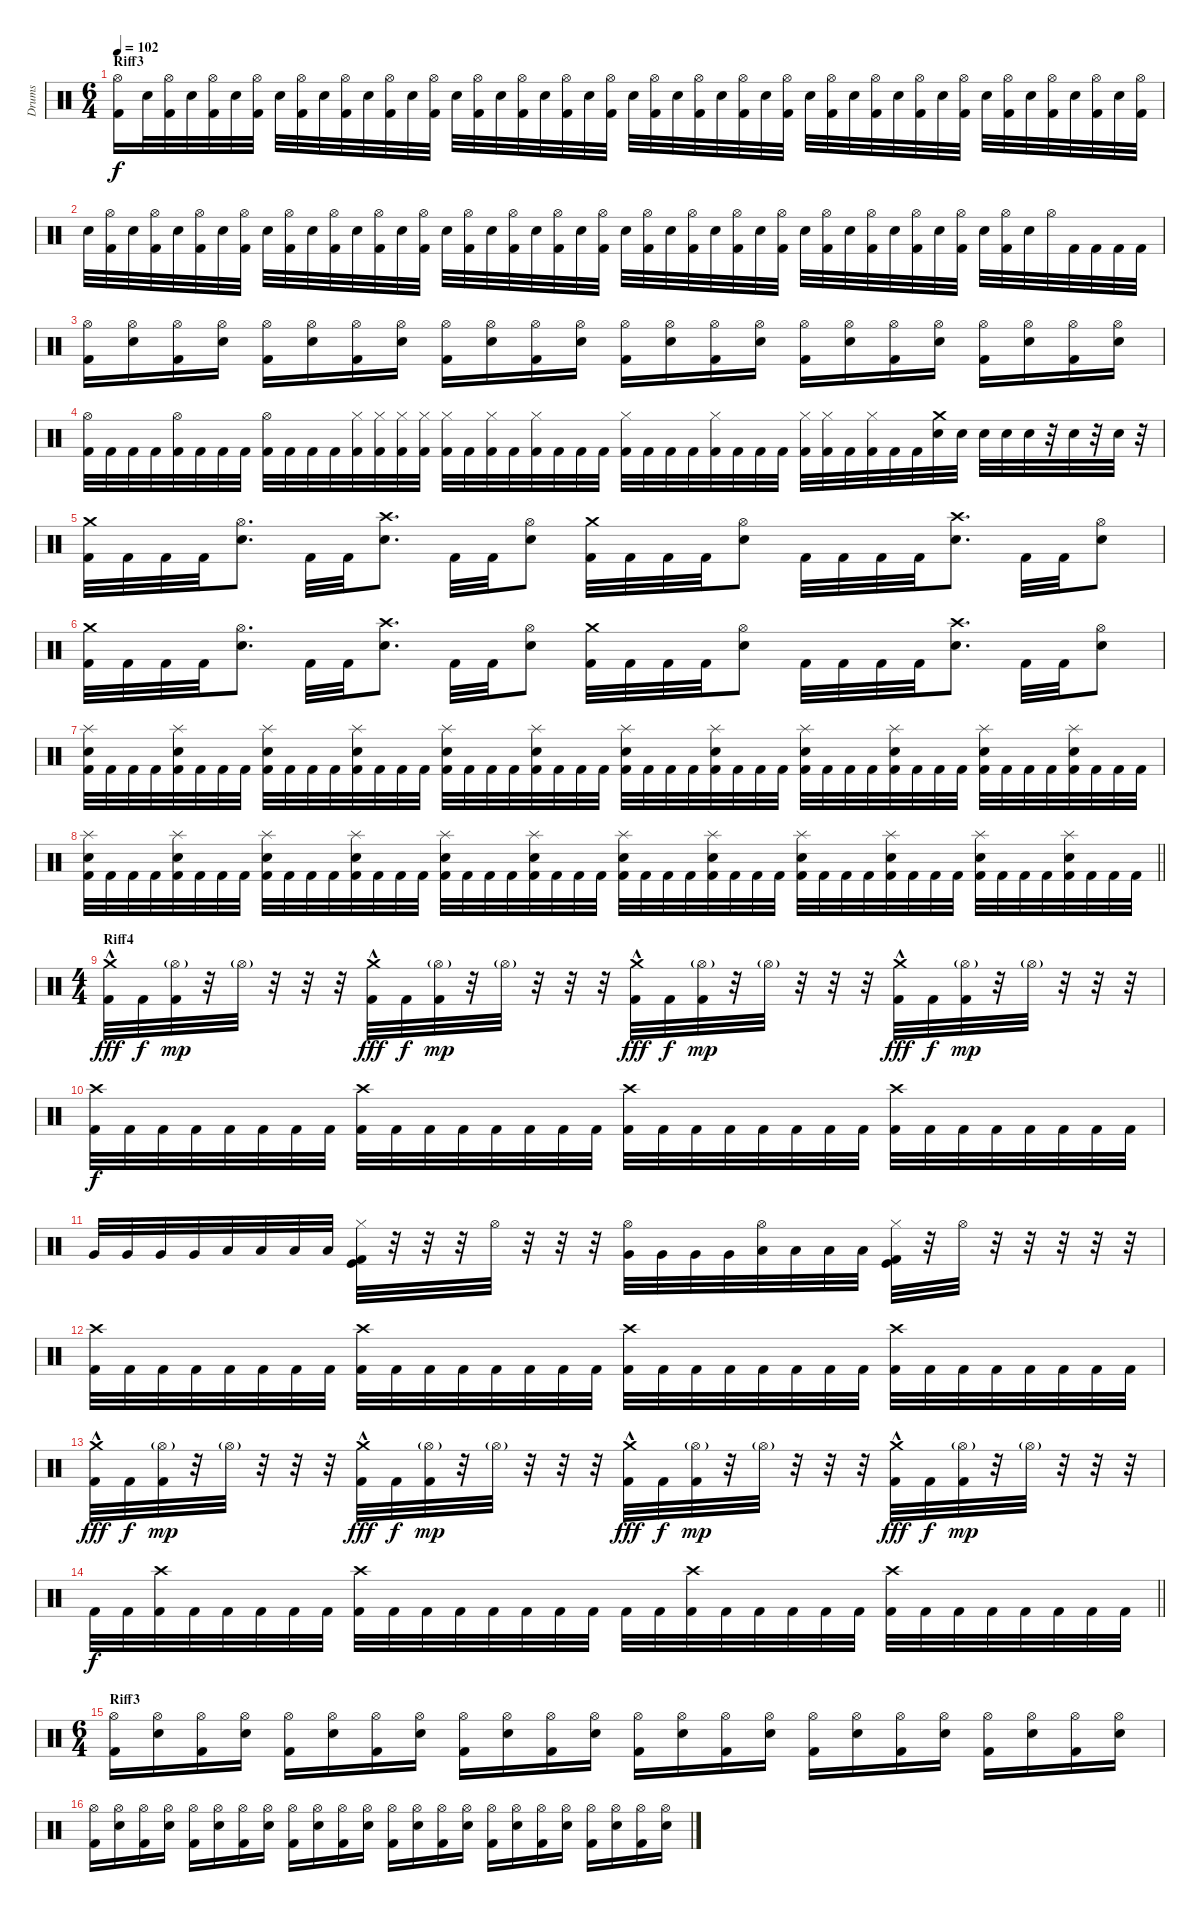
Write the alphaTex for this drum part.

\track ("Drums" "Drums") {instrument percussion}
\staff {score}
\articulation defaults
\ts (6 4)
\section ("" "Riff3")
\tempo 102
\clef neutral
\ks c
("Hi-Hat (open)" "Kick (hit) 2").16{dy f} "Electric Snare (hit)".32 ("Hi-Hat (open)" "Kick (hit) 2").32 "Electric Snare (hit)".32 ("Hi-Hat (open)" "Kick (hit) 2").32 "Electric Snare (hit)".32 ("Hi-Hat (open)" "Kick (hit) 2").32 "Electric Snare (hit)".32 ("Hi-Hat (open)" "Kick (hit) 2").32 "Electric Snare (hit)".32 ("Hi-Hat (open)" "Kick (hit) 2").32 "Electric Snare (hit)".32 ("Hi-Hat (open)" "Kick (hit) 2").32 "Electric Snare (hit)".32 ("Hi-Hat (open)" "Kick (hit) 2").32 "Electric Snare (hit)".32 ("Hi-Hat (open)" "Kick (hit) 2").32 "Electric Snare (hit)".32 ("Hi-Hat (open)" "Kick (hit) 2").32 "Electric Snare (hit)".32 ("Hi-Hat (open)" "Kick (hit) 2").32 "Electric Snare (hit)".32 ("Hi-Hat (open)" "Kick (hit) 2").32 "Electric Snare (hit)".32 ("Hi-Hat (open)" "Kick (hit) 2").32 "Electric Snare (hit)".32 ("Hi-Hat (open)" "Kick (hit) 2").32 "Electric Snare (hit)".32 ("Hi-Hat (open)" "Kick (hit) 2").32 "Electric Snare (hit)".32 ("Hi-Hat (open)" "Kick (hit) 2").32 "Electric Snare (hit)".32 ("Hi-Hat (open)" "Kick (hit) 2").32 "Electric Snare (hit)".32 ("Hi-Hat (open)" "Kick (hit) 2").32 "Electric Snare (hit)".32 ("Hi-Hat (open)" "Kick (hit) 2").32 "Electric Snare (hit)".32 ("Hi-Hat (open)" "Kick (hit) 2").32 "Electric Snare (hit)".32 ("Hi-Hat (open)" "Kick (hit) 2").32 "Electric Snare (hit)".32 ("Hi-Hat (open)" "Kick (hit) 2").32 "Electric Snare (hit)".32 ("Hi-Hat (open)" "Kick (hit) 2").32 "Electric Snare (hit)".32 ("Hi-Hat (open)" "Kick (hit) 2").32 |
"Electric Snare (hit)".32 ("Hi-Hat (open)" "Kick (hit) 2").32 "Electric Snare (hit)".32 ("Hi-Hat (open)" "Kick (hit) 2").32 "Electric Snare (hit)".32 ("Hi-Hat (open)" "Kick (hit) 2").32 "Electric Snare (hit)".32 ("Hi-Hat (open)" "Kick (hit) 2").32 "Electric Snare (hit)".32 ("Hi-Hat (open)" "Kick (hit) 2").32 "Electric Snare (hit)".32 ("Hi-Hat (open)" "Kick (hit) 2").32 "Electric Snare (hit)".32 ("Hi-Hat (open)" "Kick (hit) 2").32 "Electric Snare (hit)".32 ("Hi-Hat (open)" "Kick (hit) 2").32 "Electric Snare (hit)".32 ("Hi-Hat (open)" "Kick (hit) 2").32 "Electric Snare (hit)".32 ("Hi-Hat (open)" "Kick (hit) 2").32 "Electric Snare (hit)".32 ("Hi-Hat (open)" "Kick (hit) 2").32 "Electric Snare (hit)".32 ("Hi-Hat (open)" "Kick (hit) 2").32 "Electric Snare (hit)".32 ("Hi-Hat (open)" "Kick (hit) 2").32 "Electric Snare (hit)".32 ("Hi-Hat (open)" "Kick (hit) 2").32 "Electric Snare (hit)".32 ("Hi-Hat (open)" "Kick (hit) 2").32 "Electric Snare (hit)".32 ("Hi-Hat (open)" "Kick (hit) 2").32 "Electric Snare (hit)".32 ("Hi-Hat (open)" "Kick (hit) 2").32 "Electric Snare (hit)".32 ("Hi-Hat (open)" "Kick (hit) 2").32 "Electric Snare (hit)".32 ("Hi-Hat (open)" "Kick (hit) 2").32 "Electric Snare (hit)".32 ("Hi-Hat (open)" "Kick (hit) 2").32 "Electric Snare (hit)".32 ("Hi-Hat (open)" "Kick (hit) 2").32 "Electric Snare (hit)".32 "Hi-Hat (open)".32 "Kick (hit) 2".32 "Kick (hit) 2".32 "Kick (hit) 2".32 "Kick (hit) 2".32 |
("Hi-Hat (open)" "Kick (hit) 2").16 ("Hi-Hat (open)" "Electric Snare (hit)").16 ("Hi-Hat (open)" "Kick (hit) 2").16 ("Hi-Hat (open)" "Electric Snare (hit)").16 ("Hi-Hat (open)" "Kick (hit) 2").16 ("Hi-Hat (open)" "Electric Snare (hit)").16 ("Hi-Hat (open)" "Kick (hit) 2").16 ("Hi-Hat (open)" "Electric Snare (hit)").16 ("Hi-Hat (open)" "Kick (hit) 2").16 ("Hi-Hat (open)" "Electric Snare (hit)").16 ("Hi-Hat (open)" "Kick (hit) 2").16 ("Hi-Hat (open)" "Electric Snare (hit)").16 ("Hi-Hat (open)" "Kick (hit) 2").16 ("Hi-Hat (open)" "Electric Snare (hit)").16 ("Hi-Hat (open)" "Kick (hit) 2").16 ("Hi-Hat (open)" "Electric Snare (hit)").16 ("Hi-Hat (open)" "Kick (hit) 2").16 ("Hi-Hat (open)" "Electric Snare (hit)").16 ("Hi-Hat (open)" "Kick (hit) 2").16 ("Hi-Hat (open)" "Electric Snare (hit)").16 ("Hi-Hat (open)" "Kick (hit) 2").16 ("Hi-Hat (open)" "Electric Snare (hit)").16 ("Hi-Hat (open)" "Kick (hit) 2").16 ("Hi-Hat (open)" "Electric Snare (hit)").16 |
("Hi-Hat (open)" "Kick (hit) 2").32 "Kick (hit) 2".32 "Kick (hit) 2".32 "Kick (hit) 2".32 ("Hi-Hat (open)" "Kick (hit) 2").32 "Kick (hit) 2".32 "Kick (hit) 2".32 "Kick (hit) 2".32 ("Hi-Hat (open)" "Kick (hit) 2").32 "Kick (hit) 2".32 "Kick (hit) 2".32 "Kick (hit) 2".32 ("Hi-Hat (closed)" "Kick (hit) 2").32 ("Hi-Hat (closed)" "Kick (hit) 2").32 ("Hi-Hat (closed)" "Kick (hit) 2").32 ("Hi-Hat (closed)" "Kick (hit) 2").32 ("Hi-Hat (closed)" "Kick (hit) 2").32 "Kick (hit) 2".32 ("Hi-Hat (closed)" "Kick (hit) 2").32 "Kick (hit) 2".32 ("Hi-Hat (closed)" "Kick (hit) 2").32 "Kick (hit) 2".32 "Kick (hit) 2".32 "Kick (hit) 2".32 ("Hi-Hat (closed)" "Kick (hit) 2").32 "Kick (hit) 2".32 "Kick (hit) 2".32 "Kick (hit) 2".32 ("Hi-Hat (closed)" "Kick (hit) 2").32 "Kick (hit) 2".32 "Kick (hit) 2".32 "Kick (hit) 2".32 ("Hi-Hat (closed)" "Kick (hit) 2").32 ("Hi-Hat (closed)" "Kick (hit) 2").32 "Kick (hit) 2".32 ("Hi-Hat (closed)" "Kick (hit) 2").32 "Kick (hit) 2".32 "Kick (hit) 2".32 ("Crash medium (hit)" "Electric Snare (hit)").32 "Electric Snare (hit)".32 "Electric Snare (hit)".32 "Electric Snare (hit)".32 "Electric Snare (hit)".32 r.32 "Electric Snare (hit)".32 r.32 "Electric Snare (hit)".32 r.32 |
("Crash medium (hit)" "Kick (hit) 2").32 "Kick (hit) 2".32 "Kick (hit) 2".32 "Kick (hit) 2".32 ("Hi-Hat (open)" "Electric Snare (hit)").8{d} "Kick (hit) 2".32 "Kick (hit) 2".32 ("Crash high (hit)" "Electric Snare (hit)").8{d} "Kick (hit) 2".32 "Kick (hit) 2".32 ("Hi-Hat (open)" "Electric Snare (hit)").8 ("Crash medium (hit)" "Kick (hit) 2").32 "Kick (hit) 2".32 "Kick (hit) 2".32 "Kick (hit) 2".32 ("Hi-Hat (open)" "Electric Snare (hit)").8 "Kick (hit) 2".32 "Kick (hit) 2".32 "Kick (hit) 2".32 "Kick (hit) 2".32 ("Crash high (hit)" "Electric Snare (hit)").8{d} "Kick (hit) 2".32 "Kick (hit) 2".32 ("Hi-Hat (open)" "Electric Snare (hit)").8 |
("Crash medium (hit)" "Kick (hit) 2").32 "Kick (hit) 2".32 "Kick (hit) 2".32 "Kick (hit) 2".32 ("Hi-Hat (open)" "Electric Snare (hit)").8{d} "Kick (hit) 2".32 "Kick (hit) 2".32 ("Crash high (hit)" "Electric Snare (hit)").8{d} "Kick (hit) 2".32 "Kick (hit) 2".32 ("Hi-Hat (open)" "Electric Snare (hit)").8 ("Crash medium (hit)" "Kick (hit) 2").32 "Kick (hit) 2".32 "Kick (hit) 2".32 "Kick (hit) 2".32 ("Hi-Hat (open)" "Electric Snare (hit)").8 "Kick (hit) 2".32 "Kick (hit) 2".32 "Kick (hit) 2".32 "Kick (hit) 2".32 ("Crash high (hit)" "Electric Snare (hit)").8{d} "Kick (hit) 2".32 "Kick (hit) 2".32 ("Hi-Hat (open)" "Electric Snare (hit)").8 |
("Splash (hit)" "Electric Snare (hit)" "Kick (hit) 2").32 "Kick (hit) 2".32 "Kick (hit) 2".32 "Kick (hit) 2".32 ("Splash (hit)" "Electric Snare (hit)" "Kick (hit) 2").32 "Kick (hit) 2".32 "Kick (hit) 2".32 "Kick (hit) 2".32 ("Splash (hit)" "Electric Snare (hit)" "Kick (hit) 2").32 "Kick (hit) 2".32 "Kick (hit) 2".32 "Kick (hit) 2".32 ("Splash (hit)" "Electric Snare (hit)" "Kick (hit) 2").32 "Kick (hit) 2".32 "Kick (hit) 2".32 "Kick (hit) 2".32 ("Splash (hit)" "Electric Snare (hit)" "Kick (hit) 2").32 "Kick (hit) 2".32 "Kick (hit) 2".32 "Kick (hit) 2".32 ("Splash (hit)" "Electric Snare (hit)" "Kick (hit) 2").32 "Kick (hit) 2".32 "Kick (hit) 2".32 "Kick (hit) 2".32 ("Splash (hit)" "Electric Snare (hit)" "Kick (hit) 2").32 "Kick (hit) 2".32 "Kick (hit) 2".32 "Kick (hit) 2".32 ("Splash (hit)" "Electric Snare (hit)" "Kick (hit) 2").32 "Kick (hit) 2".32 "Kick (hit) 2".32 "Kick (hit) 2".32 ("Splash (hit)" "Electric Snare (hit)" "Kick (hit) 2").32 "Kick (hit) 2".32 "Kick (hit) 2".32 "Kick (hit) 2".32 ("Splash (hit)" "Electric Snare (hit)" "Kick (hit) 2").32 "Kick (hit) 2".32 "Kick (hit) 2".32 "Kick (hit) 2".32 ("Splash (hit)" "Electric Snare (hit)" "Kick (hit) 2").32 "Kick (hit) 2".32 "Kick (hit) 2".32 "Kick (hit) 2".32 ("Splash (hit)" "Electric Snare (hit)" "Kick (hit) 2").32 "Kick (hit) 2".32 "Kick (hit) 2".32 "Kick (hit) 2".32 |
\barLineRight lightlight
("Splash (hit)" "Electric Snare (hit)" "Kick (hit) 2").32 "Kick (hit) 2".32 "Kick (hit) 2".32 "Kick (hit) 2".32 ("Splash (hit)" "Electric Snare (hit)" "Kick (hit) 2").32 "Kick (hit) 2".32 "Kick (hit) 2".32 "Kick (hit) 2".32 ("Splash (hit)" "Electric Snare (hit)" "Kick (hit) 2").32 "Kick (hit) 2".32 "Kick (hit) 2".32 "Kick (hit) 2".32 ("Splash (hit)" "Electric Snare (hit)" "Kick (hit) 2").32 "Kick (hit) 2".32 "Kick (hit) 2".32 "Kick (hit) 2".32 ("Splash (hit)" "Electric Snare (hit)" "Kick (hit) 2").32 "Kick (hit) 2".32 "Kick (hit) 2".32 "Kick (hit) 2".32 ("Splash (hit)" "Electric Snare (hit)" "Kick (hit) 2").32 "Kick (hit) 2".32 "Kick (hit) 2".32 "Kick (hit) 2".32 ("Splash (hit)" "Electric Snare (hit)" "Kick (hit) 2").32 "Kick (hit) 2".32 "Kick (hit) 2".32 "Kick (hit) 2".32 ("Splash (hit)" "Electric Snare (hit)" "Kick (hit) 2").32 "Kick (hit) 2".32 "Kick (hit) 2".32 "Kick (hit) 2".32 ("Splash (hit)" "Electric Snare (hit)" "Kick (hit) 2").32 "Kick (hit) 2".32 "Kick (hit) 2".32 "Kick (hit) 2".32 ("Splash (hit)" "Electric Snare (hit)" "Kick (hit) 2").32 "Kick (hit) 2".32 "Kick (hit) 2".32 "Kick (hit) 2".32 ("Splash (hit)" "Electric Snare (hit)" "Kick (hit) 2").32 "Kick (hit) 2".32 "Kick (hit) 2".32 "Kick (hit) 2".32 ("Splash (hit)" "Electric Snare (hit)" "Kick (hit) 2").32 "Kick (hit) 2".32 "Kick (hit) 2".32 "Kick (hit) 2".32 |
\ts (4 4)
\section ("" "Riff4")
("Crash medium (hit)"{hac} "Kick (hit) 2").32{dy fff} "Kick (hit) 2".32{dy f} ("Hi-Hat (open)"{g} "Kick (hit) 2").32{dy mp} r.32 "Hi-Hat (open)"{g}.32 r.32 r.32 r.32 ("Crash medium (hit)"{hac} "Kick (hit) 2").32{dy fff} "Kick (hit) 2".32{dy f} ("Hi-Hat (open)"{g} "Kick (hit) 2").32{dy mp} r.32 "Hi-Hat (open)"{g}.32 r.32 r.32 r.32 ("Crash medium (hit)"{hac} "Kick (hit) 2").32{dy fff} "Kick (hit) 2".32{dy f} ("Hi-Hat (open)"{g} "Kick (hit) 2").32{dy mp} r.32 "Hi-Hat (open)"{g}.32 r.32 r.32 r.32 ("Crash medium (hit)"{hac} "Kick (hit) 2").32{dy fff} "Kick (hit) 2".32{dy f} ("Hi-Hat (open)"{g} "Kick (hit) 2").32{dy mp} r.32 "Hi-Hat (open)"{g}.32 r.32 r.32 r.32 |
("Crash high (hit)" "Kick (hit) 2").32{dy f} "Kick (hit) 2".32 "Kick (hit) 2".32 "Kick (hit) 2".32 "Kick (hit) 2".32 "Kick (hit) 2".32 "Kick (hit) 2".32 "Kick (hit) 2".32 ("Crash high (hit)" "Kick (hit) 2").32 "Kick (hit) 2".32 "Kick (hit) 2".32 "Kick (hit) 2".32 "Kick (hit) 2".32 "Kick (hit) 2".32 "Kick (hit) 2".32 "Kick (hit) 2".32 ("Crash high (hit)" "Kick (hit) 2").32 "Kick (hit) 2".32 "Kick (hit) 2".32 "Kick (hit) 2".32 "Kick (hit) 2".32 "Kick (hit) 2".32 "Kick (hit) 2".32 "Kick (hit) 2".32 ("Crash high (hit)" "Kick (hit) 2").32 "Kick (hit) 2".32 "Kick (hit) 2".32 "Kick (hit) 2".32 "Kick (hit) 2".32 "Kick (hit) 2".32 "Kick (hit) 2".32 "Kick (hit) 2".32 |
"Very Low Tom (hit)".32 "Very Low Tom (hit)".32 "Very Low Tom (hit)".32 "Very Low Tom (hit)".32 "Low Floor Tom (hit)".32 "Low Floor Tom (hit)".32 "Low Floor Tom (hit)".32 "Low Floor Tom (hit)".32 ("Hi-Hat (closed)" "Kick (hit)" "Kick (hit) 2").32 r.32 r.32 r.32 "Hi-Hat (open)".32 r.32 r.32 r.32 ("Hi-Hat (open)" "Very Low Tom (hit)").32 "Very Low Tom (hit)".32 "Very Low Tom (hit)".32 "Very Low Tom (hit)".32 ("Hi-Hat (open)" "Low Floor Tom (hit)").32 "Low Floor Tom (hit)".32 "Low Floor Tom (hit)".32 "Low Floor Tom (hit)".32 ("Hi-Hat (closed)" "Kick (hit)" "Kick (hit) 2").32 r.32 "Hi-Hat (open)".32 r.32 r.32 r.32 r.32 r.32 |
("Crash high (hit)" "Kick (hit) 2").32 "Kick (hit) 2".32 "Kick (hit) 2".32 "Kick (hit) 2".32 "Kick (hit) 2".32 "Kick (hit) 2".32 "Kick (hit) 2".32 "Kick (hit) 2".32 ("Crash high (hit)" "Kick (hit) 2").32 "Kick (hit) 2".32 "Kick (hit) 2".32 "Kick (hit) 2".32 "Kick (hit) 2".32 "Kick (hit) 2".32 "Kick (hit) 2".32 "Kick (hit) 2".32 ("Crash high (hit)" "Kick (hit) 2").32 "Kick (hit) 2".32 "Kick (hit) 2".32 "Kick (hit) 2".32 "Kick (hit) 2".32 "Kick (hit) 2".32 "Kick (hit) 2".32 "Kick (hit) 2".32 ("Crash high (hit)" "Kick (hit) 2").32 "Kick (hit) 2".32 "Kick (hit) 2".32 "Kick (hit) 2".32 "Kick (hit) 2".32 "Kick (hit) 2".32 "Kick (hit) 2".32 "Kick (hit) 2".32 |
("Crash medium (hit)"{hac} "Kick (hit) 2").32{dy fff} "Kick (hit) 2".32{dy f} ("Hi-Hat (open)"{g} "Kick (hit) 2").32{dy mp} r.32 "Hi-Hat (open)"{g}.32 r.32 r.32 r.32 ("Crash medium (hit)"{hac} "Kick (hit) 2").32{dy fff} "Kick (hit) 2".32{dy f} ("Hi-Hat (open)"{g} "Kick (hit) 2").32{dy mp} r.32 "Hi-Hat (open)"{g}.32 r.32 r.32 r.32 ("Crash medium (hit)"{hac} "Kick (hit) 2").32{dy fff} "Kick (hit) 2".32{dy f} ("Hi-Hat (open)"{g} "Kick (hit) 2").32{dy mp} r.32 "Hi-Hat (open)"{g}.32 r.32 r.32 r.32 ("Crash medium (hit)"{hac} "Kick (hit) 2").32{dy fff} "Kick (hit) 2".32{dy f} ("Hi-Hat (open)"{g} "Kick (hit) 2").32{dy mp} r.32 "Hi-Hat (open)"{g}.32 r.32 r.32 r.32 |
\barLineRight lightlight "Kick (hit) 2".32{dy f} "Kick (hit) 2".32
("Crash high (hit)" "Kick (hit) 2").32 "Kick (hit) 2".32 "Kick (hit) 2".32 "Kick (hit) 2".32 "Kick (hit) 2".32 "Kick (hit) 2".32 ("Crash high (hit)" "Kick (hit) 2").32 "Kick (hit) 2".32 "Kick (hit) 2".32 "Kick (hit) 2".32 "Kick (hit) 2".32 "Kick (hit) 2".32 "Kick (hit) 2".32 "Kick (hit) 2".32 "Kick (hit) 2".32 "Kick (hit) 2".32 ("Crash high (hit)" "Kick (hit) 2").32 "Kick (hit) 2".32 "Kick (hit) 2".32 "Kick (hit) 2".32 "Kick (hit) 2".32 "Kick (hit) 2".32 ("Crash high (hit)" "Kick (hit) 2").32 "Kick (hit) 2".32 "Kick (hit) 2".32 "Kick (hit) 2".32 "Kick (hit) 2".32 "Kick (hit) 2".32 "Kick (hit) 2".32 "Kick (hit) 2".32 |
\ts (6 4)
\section ("" "Riff3")
("Hi-Hat (open)" "Kick (hit) 2").16 ("Hi-Hat (open)" "Electric Snare (hit)").16 ("Hi-Hat (open)" "Kick (hit) 2").16 ("Hi-Hat (open)" "Electric Snare (hit)").16 ("Hi-Hat (open)" "Kick (hit) 2").16 ("Hi-Hat (open)" "Electric Snare (hit)").16 ("Hi-Hat (open)" "Kick (hit) 2").16 ("Hi-Hat (open)" "Electric Snare (hit)").16 ("Hi-Hat (open)" "Kick (hit) 2").16 ("Hi-Hat (open)" "Electric Snare (hit)").16 ("Hi-Hat (open)" "Kick (hit) 2").16 ("Hi-Hat (open)" "Electric Snare (hit)").16 ("Hi-Hat (open)" "Kick (hit) 2").16 ("Hi-Hat (open)" "Electric Snare (hit)").16 ("Hi-Hat (open)" "Kick (hit) 2").16 ("Hi-Hat (open)" "Electric Snare (hit)").16 ("Hi-Hat (open)" "Kick (hit) 2").16 ("Hi-Hat (open)" "Electric Snare (hit)").16 ("Hi-Hat (open)" "Kick (hit) 2").16 ("Hi-Hat (open)" "Electric Snare (hit)").16 ("Hi-Hat (open)" "Kick (hit) 2").16 ("Hi-Hat (open)" "Electric Snare (hit)").16 ("Hi-Hat (open)" "Kick (hit) 2").16 ("Hi-Hat (open)" "Electric Snare (hit)").16 |
("Hi-Hat (open)" "Kick (hit) 2").16 ("Hi-Hat (open)" "Electric Snare (hit)").16 ("Hi-Hat (open)" "Kick (hit) 2").16 ("Hi-Hat (open)" "Electric Snare (hit)").16 ("Hi-Hat (open)" "Kick (hit) 2").16 ("Hi-Hat (open)" "Electric Snare (hit)").16 ("Hi-Hat (open)" "Kick (hit) 2").16 ("Hi-Hat (open)" "Electric Snare (hit)").16 ("Hi-Hat (open)" "Kick (hit) 2").16 ("Hi-Hat (open)" "Electric Snare (hit)").16 ("Hi-Hat (open)" "Kick (hit) 2").16 ("Hi-Hat (open)" "Electric Snare (hit)").16 ("Hi-Hat (open)" "Kick (hit) 2").16 ("Hi-Hat (open)" "Electric Snare (hit)").16 ("Hi-Hat (open)" "Kick (hit) 2").16 ("Hi-Hat (open)" "Electric Snare (hit)").16 ("Hi-Hat (open)" "Kick (hit) 2").16 ("Hi-Hat (open)" "Electric Snare (hit)").16 ("Hi-Hat (open)" "Kick (hit) 2").16 ("Hi-Hat (open)" "Electric Snare (hit)").16 ("Hi-Hat (open)" "Kick (hit) 2").16 ("Hi-Hat (open)" "Electric Snare (hit)").16 ("Hi-Hat (open)" "Kick (hit) 2").16 ("Hi-Hat (open)" "Electric Snare (hit)").16
